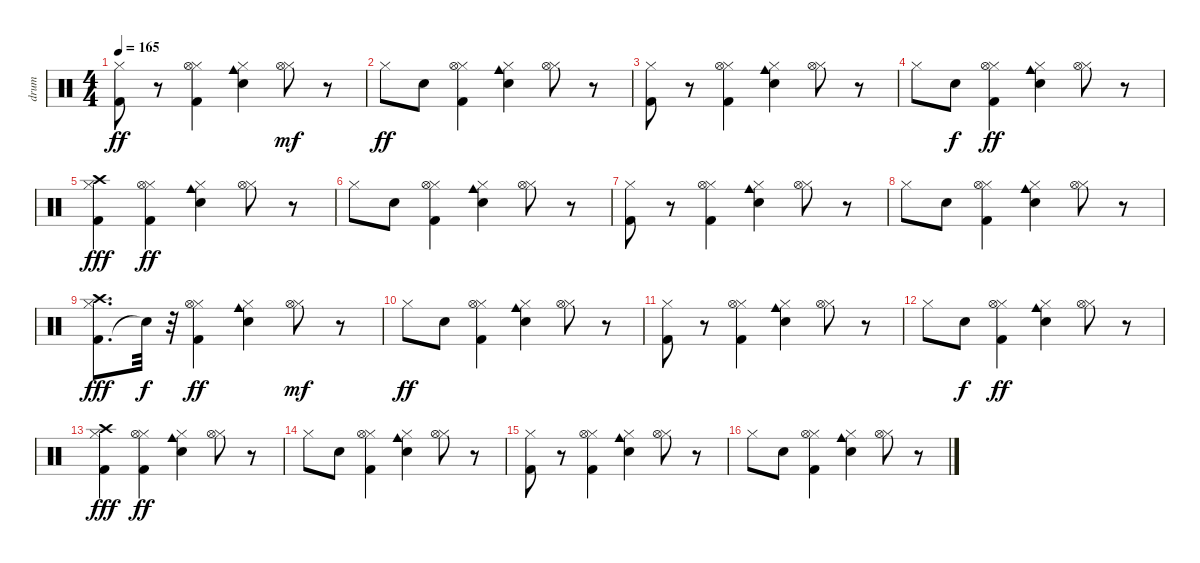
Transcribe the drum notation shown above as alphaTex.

\track ("drum" "drum") {instrument percussion}
\staff {score}
\articulation defaults
\ts (4 4)
\tempo 165
\clef neutral
\ks c
("Kick (hit) 2" "Hi-Hat (closed)").8{dy ff} r.8 ("Kick (hit) 2" "Hi-Hat (closed)" "Hi-Hat (open)").4 ("Electric Snare (hit)" "Hi-Hat (closed)" "Cowbell medium (hit)").4 ("Hi-Hat (closed)" "Hi-Hat (open)").8{dy mf} r.8 |
"Hi-Hat (closed)".8{dy ff} "Electric Snare (hit)".8 ("Kick (hit) 2" "Hi-Hat (closed)" "Hi-Hat (open)").4 ("Electric Snare (hit)" "Hi-Hat (closed)" "Cowbell medium (hit)").4 ("Hi-Hat (closed)" "Hi-Hat (open)").8 r.8 |
("Kick (hit) 2" "Hi-Hat (closed)").8 r.8 ("Kick (hit) 2" "Hi-Hat (closed)" "Hi-Hat (open)").4 ("Electric Snare (hit)" "Hi-Hat (closed)" "Cowbell medium (hit)").4 ("Hi-Hat (closed)" "Hi-Hat (open)").8 r.8 |
"Hi-Hat (closed)".8 "Electric Snare (hit)".8{dy f} ("Kick (hit) 2" "Hi-Hat (closed)" "Hi-Hat (open)").4{dy ff} ("Electric Snare (hit)" "Hi-Hat (closed)" "Cowbell medium (hit)").4 ("Hi-Hat (closed)" "Hi-Hat (open)").8 r.8 |
("Kick (hit) 2" "Hi-Hat (closed)" "Crash high (hit)").4{dy fff} ("Kick (hit) 2" "Hi-Hat (closed)" "Hi-Hat (open)").4{dy ff} ("Electric Snare (hit)" "Hi-Hat (closed)" "Cowbell medium (hit)").4 ("Hi-Hat (closed)" "Hi-Hat (open)").8 r.8 |
"Hi-Hat (closed)".8 "Electric Snare (hit)".8 ("Kick (hit) 2" "Hi-Hat (closed)" "Hi-Hat (open)").4 ("Electric Snare (hit)" "Hi-Hat (closed)" "Cowbell medium (hit)").4 ("Hi-Hat (closed)" "Hi-Hat (open)").8 r.8 |
("Kick (hit) 2" "Hi-Hat (closed)").8 r.8 ("Kick (hit) 2" "Hi-Hat (closed)" "Hi-Hat (open)").4 ("Electric Snare (hit)" "Hi-Hat (closed)" "Cowbell medium (hit)").4 ("Hi-Hat (closed)" "Hi-Hat (open)").8 r.8 |
"Hi-Hat (closed)".8 "Electric Snare (hit)".8 ("Kick (hit) 2" "Hi-Hat (closed)" "Hi-Hat (open)").4 ("Electric Snare (hit)" "Hi-Hat (closed)" "Cowbell medium (hit)").4 ("Hi-Hat (closed)" "Hi-Hat (open)").8 r.8 |
("Kick (hit) 2" "Hi-Hat (closed)" "Crash high (hit)").8{d dy fff} "Snare (hit)"{t}.32{dy f} r.32 ("Kick (hit) 2" "Hi-Hat (closed)" "Hi-Hat (open)").4{dy ff} ("Electric Snare (hit)" "Hi-Hat (closed)" "Cowbell medium (hit)").4 ("Hi-Hat (closed)" "Hi-Hat (open)").8{dy mf} r.8 |
"Hi-Hat (closed)".8{dy ff} "Electric Snare (hit)".8 ("Kick (hit) 2" "Hi-Hat (closed)" "Hi-Hat (open)").4 ("Electric Snare (hit)" "Hi-Hat (closed)" "Cowbell medium (hit)").4 ("Hi-Hat (closed)" "Hi-Hat (open)").8 r.8 |
("Kick (hit) 2" "Hi-Hat (closed)").8 r.8 ("Kick (hit) 2" "Hi-Hat (closed)" "Hi-Hat (open)").4 ("Electric Snare (hit)" "Hi-Hat (closed)" "Cowbell medium (hit)").4 ("Hi-Hat (closed)" "Hi-Hat (open)").8 r.8 |
"Hi-Hat (closed)".8 "Electric Snare (hit)".8{dy f} ("Kick (hit) 2" "Hi-Hat (closed)" "Hi-Hat (open)").4{dy ff} ("Electric Snare (hit)" "Hi-Hat (closed)" "Cowbell medium (hit)").4 ("Hi-Hat (closed)" "Hi-Hat (open)").8 r.8 |
("Kick (hit) 2" "Hi-Hat (closed)" "Crash high (hit)").4{dy fff} ("Kick (hit) 2" "Hi-Hat (closed)" "Hi-Hat (open)").4{dy ff} ("Electric Snare (hit)" "Hi-Hat (closed)" "Cowbell medium (hit)").4 ("Hi-Hat (closed)" "Hi-Hat (open)").8 r.8 |
"Hi-Hat (closed)".8 "Electric Snare (hit)".8 ("Kick (hit) 2" "Hi-Hat (closed)" "Hi-Hat (open)").4 ("Electric Snare (hit)" "Hi-Hat (closed)" "Cowbell medium (hit)").4 ("Hi-Hat (closed)" "Hi-Hat (open)").8 r.8 |
("Kick (hit) 2" "Hi-Hat (closed)").8 r.8 ("Kick (hit) 2" "Hi-Hat (closed)" "Hi-Hat (open)").4 ("Electric Snare (hit)" "Hi-Hat (closed)" "Cowbell medium (hit)").4 ("Hi-Hat (closed)" "Hi-Hat (open)").8 r.8 |
"Hi-Hat (closed)".8 "Electric Snare (hit)".8 ("Kick (hit) 2" "Hi-Hat (closed)" "Hi-Hat (open)").4 ("Electric Snare (hit)" "Hi-Hat (closed)" "Cowbell medium (hit)").4 ("Hi-Hat (closed)" "Hi-Hat (open)").8 r.8
